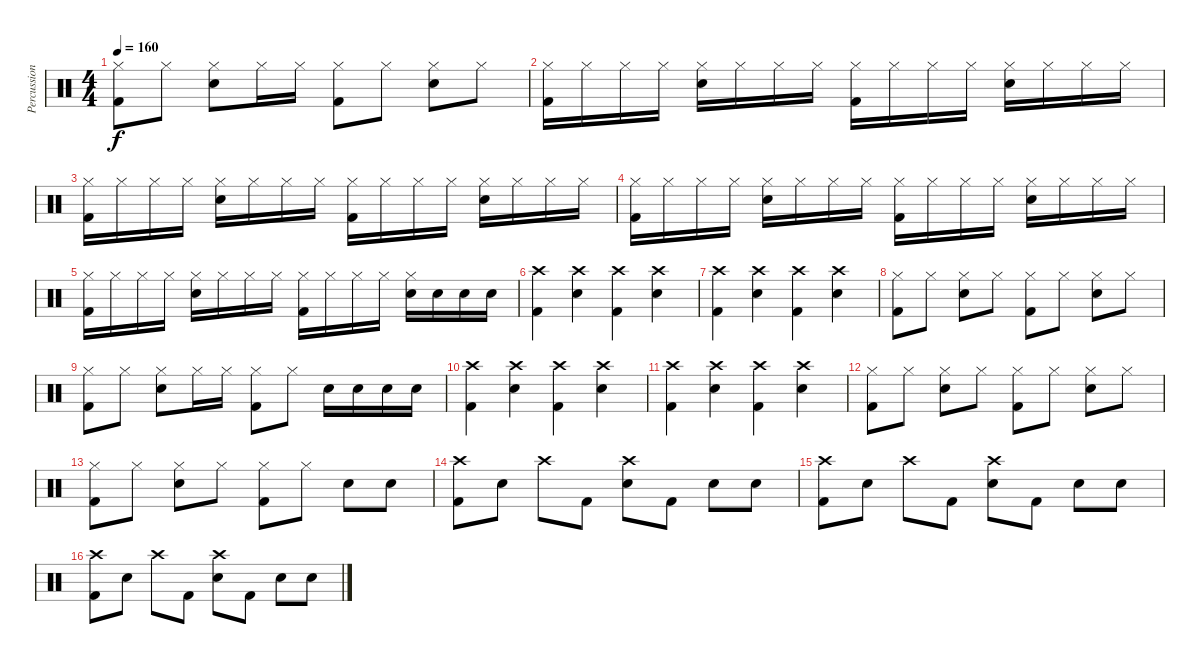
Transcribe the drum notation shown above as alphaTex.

\track ("Percussions" "Percussion") {instrument percussion}
\staff {score}
\articulation defaults
\ts (4 4)
\tempo 160
\clef neutral
\ks c
("Kick (hit) 2" "Hi-Hat (closed)").8{dy f} "Hi-Hat (closed)".8 ("Snare (hit) 2" "Hi-Hat (closed)").8 "Hi-Hat (closed)".16 "Hi-Hat (closed)".16 ("Kick (hit) 2" "Hi-Hat (closed)").8 "Hi-Hat (closed)".8 ("Snare (hit) 2" "Hi-Hat (closed)").8 "Hi-Hat (closed)".8 |
("Kick (hit) 2" "Hi-Hat (closed)").16 "Hi-Hat (closed)".16 "Hi-Hat (closed)".16 "Hi-Hat (closed)".16 ("Snare (hit) 2" "Hi-Hat (closed)").16 "Hi-Hat (closed)".16 "Hi-Hat (closed)".16 "Hi-Hat (closed)".16 ("Kick (hit) 2" "Hi-Hat (closed)").16 "Hi-Hat (closed)".16 "Hi-Hat (closed)".16 "Hi-Hat (closed)".16 ("Snare (hit) 2" "Hi-Hat (closed)").16 "Hi-Hat (closed)".16 "Hi-Hat (closed)".16 "Hi-Hat (closed)".16 |
("Kick (hit) 2" "Hi-Hat (closed)").16 "Hi-Hat (closed)".16 "Hi-Hat (closed)".16 "Hi-Hat (closed)".16 ("Snare (hit) 2" "Hi-Hat (closed)").16 "Hi-Hat (closed)".16 "Hi-Hat (closed)".16 "Hi-Hat (closed)".16 ("Kick (hit) 2" "Hi-Hat (closed)").16 "Hi-Hat (closed)".16 "Hi-Hat (closed)".16 "Hi-Hat (closed)".16 ("Snare (hit) 2" "Hi-Hat (closed)").16 "Hi-Hat (closed)".16 "Hi-Hat (closed)".16 "Hi-Hat (closed)".16 |
("Kick (hit) 2" "Hi-Hat (closed)").16 "Hi-Hat (closed)".16 "Hi-Hat (closed)".16 "Hi-Hat (closed)".16 ("Snare (hit) 2" "Hi-Hat (closed)").16 "Hi-Hat (closed)".16 "Hi-Hat (closed)".16 "Hi-Hat (closed)".16 ("Kick (hit) 2" "Hi-Hat (closed)").16 "Hi-Hat (closed)".16 "Hi-Hat (closed)".16 "Hi-Hat (closed)".16 ("Snare (hit) 2" "Hi-Hat (closed)").16 "Hi-Hat (closed)".16 "Hi-Hat (closed)".16 "Hi-Hat (closed)".16 |
("Kick (hit) 2" "Hi-Hat (closed)").16 "Hi-Hat (closed)".16 "Hi-Hat (closed)".16 "Hi-Hat (closed)".16 ("Snare (hit) 2" "Hi-Hat (closed)").16 "Hi-Hat (closed)".16 "Hi-Hat (closed)".16 "Hi-Hat (closed)".16 ("Kick (hit) 2" "Hi-Hat (closed)").16 "Hi-Hat (closed)".16 "Hi-Hat (closed)".16 "Hi-Hat (closed)".16 ("Snare (hit) 2" "Hi-Hat (closed)").16 "Snare (hit) 2".16 "Snare (hit) 2".16 "Snare (hit) 2".16 |
("Kick (hit) 2" "Crash high (hit)").4 ("Snare (hit) 2" "Crash high (hit)").4 ("Kick (hit) 2" "Crash high (hit)").4 ("Snare (hit) 2" "Crash high (hit)").4 |
("Kick (hit) 2" "Crash high (hit)").4 ("Snare (hit) 2" "Crash high (hit)").4 ("Kick (hit) 2" "Crash high (hit)").4 ("Snare (hit) 2" "Crash high (hit)").4 |
("Kick (hit) 2" "Hi-Hat (closed)").8 "Hi-Hat (closed)".8 ("Snare (hit) 2" "Hi-Hat (closed)").8 "Hi-Hat (closed)".8 ("Kick (hit) 2" "Hi-Hat (closed)").8 "Hi-Hat (closed)".8 ("Snare (hit) 2" "Hi-Hat (closed)").8 "Hi-Hat (closed)".8 |
("Kick (hit) 2" "Hi-Hat (closed)").8 "Hi-Hat (closed)".8 ("Snare (hit) 2" "Hi-Hat (closed)").8 "Hi-Hat (closed)".16 "Hi-Hat (closed)".16 ("Kick (hit) 2" "Hi-Hat (closed)").8 "Hi-Hat (closed)".8 "Snare (hit) 2".16 "Snare (hit) 2".16 "Snare (hit) 2".16 "Snare (hit) 2".16 |
("Kick (hit) 2" "Crash high (hit)").4 ("Snare (hit) 2" "Crash high (hit)").4 ("Kick (hit) 2" "Crash high (hit)").4 ("Snare (hit) 2" "Crash high (hit)").4 |
("Kick (hit) 2" "Crash high (hit)").4 ("Snare (hit) 2" "Crash high (hit)").4 ("Kick (hit) 2" "Crash high (hit)").4 ("Snare (hit) 2" "Crash high (hit)").4 |
("Kick (hit) 2" "Hi-Hat (closed)").8 "Hi-Hat (closed)".8 ("Snare (hit) 2" "Hi-Hat (closed)").8 "Hi-Hat (closed)".8 ("Kick (hit) 2" "Hi-Hat (closed)").8 "Hi-Hat (closed)".8 ("Snare (hit) 2" "Hi-Hat (closed)").8 "Hi-Hat (closed)".8 |
("Kick (hit) 2" "Hi-Hat (closed)").8 "Hi-Hat (closed)".8 ("Snare (hit) 2" "Hi-Hat (closed)").8 "Hi-Hat (closed)".8 ("Kick (hit) 2" "Hi-Hat (closed)").8 "Hi-Hat (closed)".8 "Snare (hit) 2".8 "Snare (hit) 2".8 |
("Kick (hit) 2" "Crash high (hit)").8 "Snare (hit) 2".8 "Crash high (hit)".8 "Kick (hit) 2".8 ("Snare (hit) 2" "Crash high (hit)").8 "Kick (hit) 2".8 "Snare (hit) 2".8 "Snare (hit) 2".8 |
("Kick (hit) 2" "Crash high (hit)").8 "Snare (hit) 2".8 "Crash high (hit)".8 "Kick (hit) 2".8 ("Snare (hit) 2" "Crash high (hit)").8 "Kick (hit) 2".8 "Snare (hit) 2".8 "Snare (hit) 2".8 |
("Kick (hit) 2" "Crash high (hit)").8 "Snare (hit) 2".8 "Crash high (hit)".8 "Kick (hit) 2".8 ("Snare (hit) 2" "Crash high (hit)").8 "Kick (hit) 2".8 "Snare (hit) 2".8 "Snare (hit) 2".8
